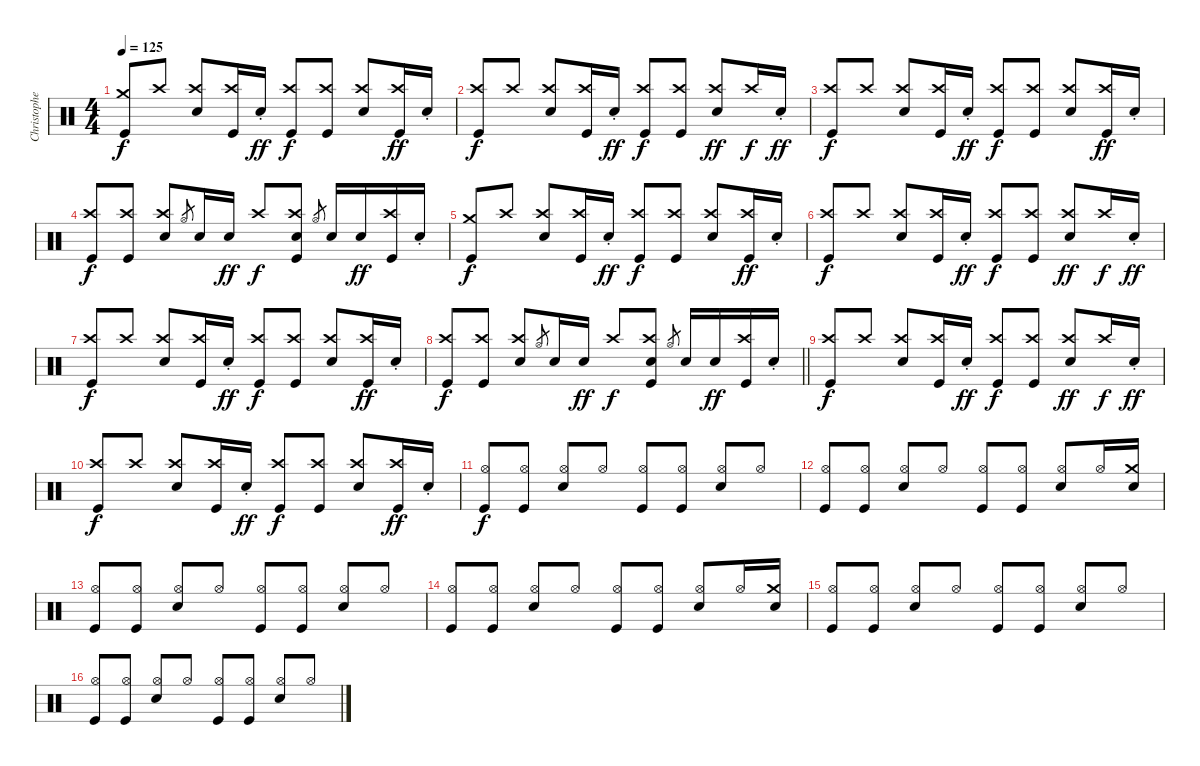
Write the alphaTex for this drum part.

\track ("Christopher Guanlao - Drums" "Christophe") {instrument percussion}
\staff {score}
\articulation defaults
\ts (4 4)
\tempo 125
\clef neutral
\ks c
("Crash medium (hit)" "Kick (hit)").8{dy f beam Up} "Crash high (hit)".8{beam Up} ("Crash high (hit)" "Electric Snare (hit)").8{beam Up} ("Crash high (hit)" "Kick (hit)").16{beam Up} "Electric Snare (hit)"{st}.16{dy ff beam Up} ("Crash high (hit)" "Kick (hit)").8{dy f beam Up} ("Crash high (hit)" "Kick (hit)").8{beam Up} ("Crash high (hit)" "Electric Snare (hit)").8{beam Up} ("Crash high (hit)" "Kick (hit)").16{dy ff beam Up} "Electric Snare (hit)"{st}.16{beam Up} |
("Crash high (hit)" "Kick (hit)").8{dy f beam Up} "Crash high (hit)".8{beam Up} ("Crash high (hit)" "Electric Snare (hit)").8{beam Up} ("Crash high (hit)" "Kick (hit)").16{beam Up} "Electric Snare (hit)"{st}.16{dy ff beam Up} ("Crash high (hit)" "Kick (hit)").8{dy f beam Up} ("Crash high (hit)" "Kick (hit)").8{beam Up} ("Crash high (hit)" "Electric Snare (hit)").8{dy ff beam Up} "Crash high (hit)".16{dy f beam Up} "Electric Snare (hit)"{st}.16{dy ff beam Up} |
("Crash high (hit)" "Kick (hit)").8{dy f beam Up} "Crash high (hit)".8{beam Up} ("Crash high (hit)" "Electric Snare (hit)").8{beam Up} ("Crash high (hit)" "Kick (hit)").16{beam Up} "Electric Snare (hit)"{st}.16{dy ff beam Up} ("Crash high (hit)" "Kick (hit)").8{dy f beam Up} ("Crash high (hit)" "Kick (hit)").8{beam Up} ("Crash high (hit)" "Electric Snare (hit)").8{beam Up} ("Crash high (hit)" "Kick (hit)").16{dy ff beam Up} "Electric Snare (hit)"{st}.16{beam Up} |
("Crash high (hit)" "Kick (hit)").8{dy f beam Up} ("Crash high (hit)" "Kick (hit)").8{beam Up} ("Crash high (hit)" "Electric Snare (hit)").8{beam Up} "Hi-Hat (open)".8{gr} "Electric Snare (hit)".16{beam Up} "Electric Snare (hit)".16{dy ff beam Up} "Crash high (hit)".8{dy f beam Up} ("Crash high (hit)" "Electric Snare (hit)" "Kick (hit)").8{beam Up} "Hi-Hat (open)".8{gr} "Electric Snare (hit)".16{beam Up} "Electric Snare (hit)".16{dy ff beam Up} ("Crash high (hit)" "Kick (hit)").16{beam Up} "Electric Snare (hit)"{st}.16{beam Up} |
("Crash medium (hit)" "Kick (hit)").8{dy f beam Up} "Crash high (hit)".8{beam Up} ("Crash high (hit)" "Electric Snare (hit)").8{beam Up} ("Crash high (hit)" "Kick (hit)").16{beam Up} "Electric Snare (hit)"{st}.16{dy ff beam Up} ("Crash high (hit)" "Kick (hit)").8{dy f beam Up} ("Crash high (hit)" "Kick (hit)").8{beam Up} ("Crash high (hit)" "Electric Snare (hit)").8{beam Up} ("Crash high (hit)" "Kick (hit)").16{dy ff beam Up} "Electric Snare (hit)"{st}.16{beam Up} |
("Crash high (hit)" "Kick (hit)").8{dy f beam Up} "Crash high (hit)".8{beam Up} ("Crash high (hit)" "Electric Snare (hit)").8{beam Up} ("Crash high (hit)" "Kick (hit)").16{beam Up} "Electric Snare (hit)"{st}.16{dy ff beam Up} ("Crash high (hit)" "Kick (hit)").8{dy f beam Up} ("Crash high (hit)" "Kick (hit)").8{beam Up} ("Crash high (hit)" "Electric Snare (hit)").8{dy ff beam Up} "Crash high (hit)".16{dy f beam Up} "Electric Snare (hit)"{st}.16{dy ff beam Up} |
("Crash high (hit)" "Kick (hit)").8{dy f beam Up} "Crash high (hit)".8{beam Up} ("Crash high (hit)" "Electric Snare (hit)").8{beam Up} ("Crash high (hit)" "Kick (hit)").16{beam Up} "Electric Snare (hit)"{st}.16{dy ff beam Up} ("Crash high (hit)" "Kick (hit)").8{dy f beam Up} ("Crash high (hit)" "Kick (hit)").8{beam Up} ("Crash high (hit)" "Electric Snare (hit)").8{beam Up} ("Crash high (hit)" "Kick (hit)").16{dy ff beam Up} "Electric Snare (hit)"{st}.16{beam Up} |
\barLineRight lightlight
("Crash high (hit)" "Kick (hit)").8{dy f beam Up} ("Crash high (hit)" "Kick (hit)").8{beam Up} ("Crash high (hit)" "Electric Snare (hit)").8{beam Up} "Hi-Hat (open)".8{gr} "Electric Snare (hit)".16{beam Up} "Electric Snare (hit)".16{dy ff beam Up} "Crash high (hit)".8{dy f beam Up} ("Crash high (hit)" "Electric Snare (hit)" "Kick (hit)").8{beam Up} "Hi-Hat (open)".8{gr} "Electric Snare (hit)".16{beam Up} "Electric Snare (hit)".16{dy ff beam Up} ("Crash high (hit)" "Kick (hit)").16{beam Up} "Electric Snare (hit)"{st}.16{beam Up} |
("Crash high (hit)" "Kick (hit)").8{dy f beam Up} "Crash high (hit)".8{beam Up} ("Crash high (hit)" "Electric Snare (hit)").8{beam Up} ("Crash high (hit)" "Kick (hit)").16{beam Up} "Electric Snare (hit)"{st}.16{dy ff beam Up} ("Crash high (hit)" "Kick (hit)").8{dy f beam Up} ("Crash high (hit)" "Kick (hit)").8{beam Up} ("Crash high (hit)" "Electric Snare (hit)").8{dy ff beam Up} "Crash high (hit)".16{dy f beam Up} "Electric Snare (hit)"{st}.16{dy ff beam Up} |
("Crash high (hit)" "Kick (hit)").8{dy f beam Up} "Crash high (hit)".8{beam Up} ("Crash high (hit)" "Electric Snare (hit)").8{beam Up} ("Crash high (hit)" "Kick (hit)").16{beam Up} "Electric Snare (hit)"{st}.16{dy ff beam Up} ("Crash high (hit)" "Kick (hit)").8{dy f beam Up} ("Crash high (hit)" "Kick (hit)").8{beam Up} ("Crash high (hit)" "Electric Snare (hit)").8{beam Up} ("Crash high (hit)" "Kick (hit)").16{dy ff beam Up} "Electric Snare (hit)"{st}.16{beam Up} |
("Hi-Hat (open)" "Kick (hit)").8{dy f beam Up} ("Hi-Hat (open)" "Kick (hit)").8{beam Up} ("Hi-Hat (open)" "Electric Snare (hit)").8{beam Up} "Hi-Hat (open)".8{beam Up} ("Hi-Hat (open)" "Kick (hit)").8{beam Up} ("Hi-Hat (open)" "Kick (hit)").8{beam Up} ("Hi-Hat (open)" "Electric Snare (hit)").8{beam Up} "Hi-Hat (open)".8{beam Up} |
("Hi-Hat (open)" "Kick (hit)").8{beam Up} ("Hi-Hat (open)" "Kick (hit)").8{beam Up} ("Hi-Hat (open)" "Electric Snare (hit)").8{beam Up} "Hi-Hat (open)".8{beam Up} ("Hi-Hat (open)" "Kick (hit)").8{beam Up} ("Hi-Hat (open)" "Kick (hit)").8{beam Up} ("Hi-Hat (open)" "Electric Snare (hit)").8{beam Up} "Hi-Hat (open)".16{beam Up} ("Crash medium (hit)" "Electric Snare (hit)").16{beam Up} |
("Hi-Hat (open)" "Kick (hit)").8{beam Up} ("Hi-Hat (open)" "Kick (hit)").8{beam Up} ("Hi-Hat (open)" "Electric Snare (hit)").8{beam Up} "Hi-Hat (open)".8{beam Up} ("Hi-Hat (open)" "Kick (hit)").8{beam Up} ("Hi-Hat (open)" "Kick (hit)").8{beam Up} ("Hi-Hat (open)" "Electric Snare (hit)").8{beam Up} "Hi-Hat (open)".8{beam Up} |
("Hi-Hat (open)" "Kick (hit)").8{beam Up} ("Hi-Hat (open)" "Kick (hit)").8{beam Up} ("Hi-Hat (open)" "Electric Snare (hit)").8{beam Up} "Hi-Hat (open)".8{beam Up} ("Hi-Hat (open)" "Kick (hit)").8{beam Up} ("Hi-Hat (open)" "Kick (hit)").8{beam Up} ("Hi-Hat (open)" "Electric Snare (hit)").8{beam Up} "Hi-Hat (open)".16{beam Up} ("Crash medium (hit)" "Electric Snare (hit)").16{beam Up} |
("Hi-Hat (open)" "Kick (hit)").8{beam Up} ("Hi-Hat (open)" "Kick (hit)").8{beam Up} ("Hi-Hat (open)" "Electric Snare (hit)").8{beam Up} "Hi-Hat (open)".8{beam Up} ("Hi-Hat (open)" "Kick (hit)").8{beam Up} ("Hi-Hat (open)" "Kick (hit)").8{beam Up} ("Hi-Hat (open)" "Electric Snare (hit)").8{beam Up} "Hi-Hat (open)".8{beam Up} |
("Hi-Hat (open)" "Kick (hit)").8{beam Up} ("Hi-Hat (open)" "Kick (hit)").8{beam Up} ("Hi-Hat (open)" "Electric Snare (hit)").8{beam Up} "Hi-Hat (open)".8{beam Up} ("Hi-Hat (open)" "Kick (hit)").8{beam Up} ("Hi-Hat (open)" "Kick (hit)").8{beam Up} ("Hi-Hat (open)" "Electric Snare (hit)").8{beam Up} "Hi-Hat (open)".8{beam Up}
